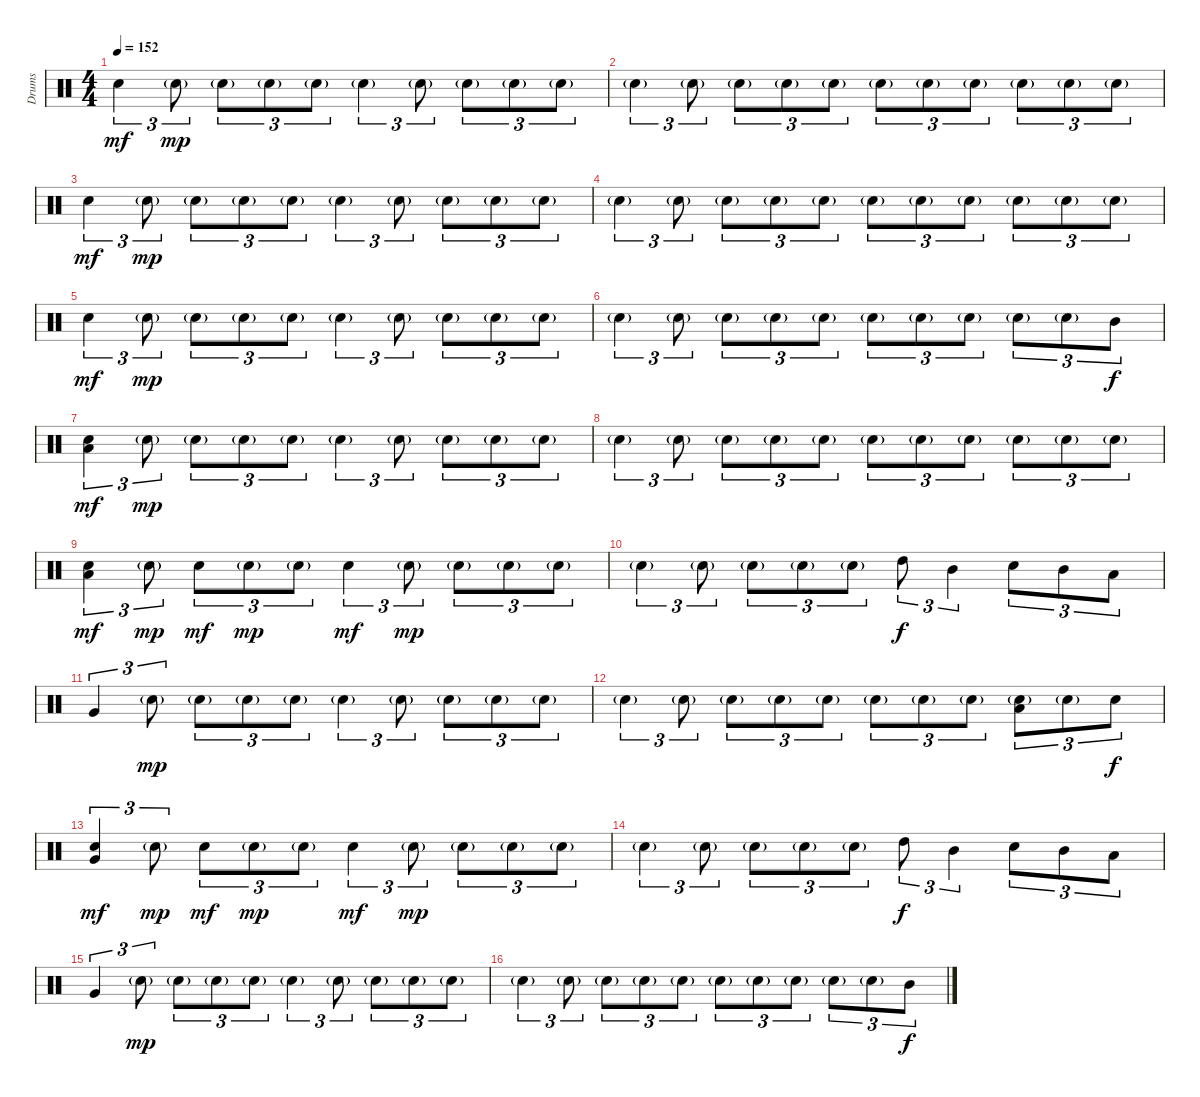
\track ("Drums" "Drums") {instrument percussion}
\staff {score}
\articulation defaults
\ts (4 4)
\tempo 152
\clef neutral
\ks aminor "Electric Snare (hit)".4{tu (3 2) dy mf volume 9 balance 10} "Electric Snare (hit)"{g}.8{tu (3 2) dy mp} "Electric Snare (hit)"{g}.8{tu (3 2)} "Electric Snare (hit)"{g}.8{tu (3 2)} "Electric Snare (hit)"{g}.8{tu (3 2)} "Electric Snare (hit)"{g}.4{tu (3 2)} "Electric Snare (hit)"{g}.8{tu (3 2)} "Electric Snare (hit)"{g}.8{tu (3 2)} "Electric Snare (hit)"{g}.8{tu (3 2)} "Electric Snare (hit)"{g}.8{tu (3 2)}
|
"Electric Snare (hit)"{g}.4{tu (3 2)} "Electric Snare (hit)"{g}.8{tu (3 2)} "Electric Snare (hit)"{g}.8{tu (3 2)} "Electric Snare (hit)"{g}.8{tu (3 2)} "Electric Snare (hit)"{g}.8{tu (3 2)} "Electric Snare (hit)"{g}.8{tu (3 2)} "Electric Snare (hit)"{g}.8{tu (3 2)} "Electric Snare (hit)"{g}.8{tu (3 2)} "Electric Snare (hit)"{g}.8{tu (3 2)} "Electric Snare (hit)"{g}.8{tu (3 2)} "Electric Snare (hit)"{g}.8{tu (3 2)} |
"Electric Snare (hit)".4{tu (3 2) dy mf} "Electric Snare (hit)"{g}.8{tu (3 2) dy mp} "Electric Snare (hit)"{g}.8{tu (3 2)} "Electric Snare (hit)"{g}.8{tu (3 2)} "Electric Snare (hit)"{g}.8{tu (3 2)} "Electric Snare (hit)"{g}.4{tu (3 2)} "Electric Snare (hit)"{g}.8{tu (3 2)} "Electric Snare (hit)"{g}.8{tu (3 2)} "Electric Snare (hit)"{g}.8{tu (3 2)} "Electric Snare (hit)"{g}.8{tu (3 2)} |
"Electric Snare (hit)"{g}.4{tu (3 2)} "Electric Snare (hit)"{g}.8{tu (3 2)} "Electric Snare (hit)"{g}.8{tu (3 2)} "Electric Snare (hit)"{g}.8{tu (3 2)} "Electric Snare (hit)"{g}.8{tu (3 2)} "Electric Snare (hit)"{g}.8{tu (3 2)} "Electric Snare (hit)"{g}.8{tu (3 2)} "Electric Snare (hit)"{g}.8{tu (3 2)} "Electric Snare (hit)"{g}.8{tu (3 2)} "Electric Snare (hit)"{g}.8{tu (3 2)} "Electric Snare (hit)"{g}.8{tu (3 2)} |
"Electric Snare (hit)".4{tu (3 2) dy mf} "Electric Snare (hit)"{g}.8{tu (3 2) dy mp} "Electric Snare (hit)"{g}.8{tu (3 2)} "Electric Snare (hit)"{g}.8{tu (3 2)} "Electric Snare (hit)"{g}.8{tu (3 2)} "Electric Snare (hit)"{g}.4{tu (3 2)} "Electric Snare (hit)"{g}.8{tu (3 2)} "Electric Snare (hit)"{g}.8{tu (3 2)} "Electric Snare (hit)"{g}.8{tu (3 2)} "Electric Snare (hit)"{g}.8{tu (3 2)} |
"Electric Snare (hit)"{g}.4{tu (3 2)} "Electric Snare (hit)"{g}.8{tu (3 2)} "Electric Snare (hit)"{g}.8{tu (3 2)} "Electric Snare (hit)"{g}.8{tu (3 2)} "Electric Snare (hit)"{g}.8{tu (3 2)} "Electric Snare (hit)"{g}.8{tu (3 2)} "Electric Snare (hit)"{g}.8{tu (3 2)} "Electric Snare (hit)"{g}.8{tu (3 2)} "Electric Snare (hit)"{g}.8{tu (3 2)} "Electric Snare (hit)"{g}.8{tu (3 2)} "Mid Tom (hit)".8{tu (3 2) dy f} |
("Low Tom (hit)" "Electric Snare (hit)").4{tu (3 2) dy mf} "Electric Snare (hit)"{g}.8{tu (3 2) dy mp} "Electric Snare (hit)"{g}.8{tu (3 2)} "Electric Snare (hit)"{g}.8{tu (3 2)} "Electric Snare (hit)"{g}.8{tu (3 2)} "Electric Snare (hit)"{g}.4{tu (3 2)} "Electric Snare (hit)"{g}.8{tu (3 2)} "Electric Snare (hit)"{g}.8{tu (3 2)} "Electric Snare (hit)"{g}.8{tu (3 2)} "Electric Snare (hit)"{g}.8{tu (3 2)} |
"Electric Snare (hit)"{g}.4{tu (3 2)} "Electric Snare (hit)"{g}.8{tu (3 2)} "Electric Snare (hit)"{g}.8{tu (3 2)} "Electric Snare (hit)"{g}.8{tu (3 2)} "Electric Snare (hit)"{g}.8{tu (3 2)} "Electric Snare (hit)"{g}.8{tu (3 2)} "Electric Snare (hit)"{g}.8{tu (3 2)} "Electric Snare (hit)"{g}.8{tu (3 2)} "Electric Snare (hit)"{g}.8{tu (3 2)} "Electric Snare (hit)"{g}.8{tu (3 2)} "Electric Snare (hit)"{g}.8{tu (3 2)} |
("Low Tom (hit)" "Electric Snare (hit)").4{tu (3 2) dy mf} "Electric Snare (hit)"{g}.8{tu (3 2) dy mp} "Electric Snare (hit)".8{tu (3 2) dy mf} "Electric Snare (hit)"{g}.8{tu (3 2) dy mp} "Electric Snare (hit)"{g}.8{tu (3 2)} "Electric Snare (hit)".4{tu (3 2) dy mf} "Electric Snare (hit)"{g}.8{tu (3 2) dy mp} "Electric Snare (hit)"{g}.8{tu (3 2)} "Electric Snare (hit)"{g}.8{tu (3 2)} "Electric Snare (hit)"{g}.8{tu (3 2)} |
"Electric Snare (hit)"{g}.4{tu (3 2)} "Electric Snare (hit)"{g}.8{tu (3 2)} "Electric Snare (hit)"{g}.8{tu (3 2)} "Electric Snare (hit)"{g}.8{tu (3 2)} "Electric Snare (hit)"{g}.8{tu (3 2)} "High Tom (hit)".8{tu (3 2) dy f} "Mid Tom (hit)".4{tu (3 2)} "Electric Snare (hit)".8{tu (3 2)} "Mid Tom (hit)".8{tu (3 2)} "Low Tom (hit)".8{tu (3 2)} |
"Very Low Tom (hit)".4{tu (3 2)} "Electric Snare (hit)"{g}.8{tu (3 2) dy mp} "Electric Snare (hit)"{g}.8{tu (3 2)} "Electric Snare (hit)"{g}.8{tu (3 2)} "Electric Snare (hit)"{g}.8{tu (3 2)} "Electric Snare (hit)"{g}.4{tu (3 2)} "Electric Snare (hit)"{g}.8{tu (3 2)} "Electric Snare (hit)"{g}.8{tu (3 2)} "Electric Snare (hit)"{g}.8{tu (3 2)} "Electric Snare (hit)"{g}.8{tu (3 2)} |
"Electric Snare (hit)"{g}.4{tu (3 2)} "Electric Snare (hit)"{g}.8{tu (3 2)} "Electric Snare (hit)"{g}.8{tu (3 2)} "Electric Snare (hit)"{g}.8{tu (3 2)} "Electric Snare (hit)"{g}.8{tu (3 2)} "Electric Snare (hit)"{g}.8{tu (3 2)} "Electric Snare (hit)"{g}.8{tu (3 2)} "Electric Snare (hit)"{g}.8{tu (3 2)} ("Low Tom (hit)" "Electric Snare (hit)"{g}).8{tu (3 2)} "Electric Snare (hit)"{g}.8{tu (3 2)} "Electric Snare (hit)".8{tu (3 2) dy f} |
("Very Low Tom (hit)" "Electric Snare (hit)").4{tu (3 2) dy mf} "Electric Snare (hit)"{g}.8{tu (3 2) dy mp} "Electric Snare (hit)".8{tu (3 2) dy mf} "Electric Snare (hit)"{g}.8{tu (3 2) dy mp} "Electric Snare (hit)"{g}.8{tu (3 2)} "Electric Snare (hit)".4{tu (3 2) dy mf} "Electric Snare (hit)"{g}.8{tu (3 2) dy mp} "Electric Snare (hit)"{g}.8{tu (3 2)} "Electric Snare (hit)"{g}.8{tu (3 2)} "Electric Snare (hit)"{g}.8{tu (3 2)} |
"Electric Snare (hit)"{g}.4{tu (3 2)} "Electric Snare (hit)"{g}.8{tu (3 2)} "Electric Snare (hit)"{g}.8{tu (3 2)} "Electric Snare (hit)"{g}.8{tu (3 2)} "Electric Snare (hit)"{g}.8{tu (3 2)} "High Tom (hit)".8{tu (3 2) dy f} "Mid Tom (hit)".4{tu (3 2)} "Electric Snare (hit)".8{tu (3 2)} "Mid Tom (hit)".8{tu (3 2)} "Low Tom (hit)".8{tu (3 2)} |
"Very Low Tom (hit)".4{tu (3 2)} "Electric Snare (hit)"{g}.8{tu (3 2) dy mp} "Electric Snare (hit)"{g}.8{tu (3 2)} "Electric Snare (hit)"{g}.8{tu (3 2)} "Electric Snare (hit)"{g}.8{tu (3 2)} "Electric Snare (hit)"{g}.4{tu (3 2)} "Electric Snare (hit)"{g}.8{tu (3 2)} "Electric Snare (hit)"{g}.8{tu (3 2)} "Electric Snare (hit)"{g}.8{tu (3 2)} "Electric Snare (hit)"{g}.8{tu (3 2)} |
"Electric Snare (hit)"{g}.4{tu (3 2)} "Electric Snare (hit)"{g}.8{tu (3 2)} "Electric Snare (hit)"{g}.8{tu (3 2)} "Electric Snare (hit)"{g}.8{tu (3 2)} "Electric Snare (hit)"{g}.8{tu (3 2)} "Electric Snare (hit)"{g}.8{tu (3 2)} "Electric Snare (hit)"{g}.8{tu (3 2)} "Electric Snare (hit)"{g}.8{tu (3 2)} "Electric Snare (hit)"{g}.8{tu (3 2)} "Electric Snare (hit)"{g}.8{tu (3 2)} "Mid Tom (hit)".8{tu (3 2) dy f}
